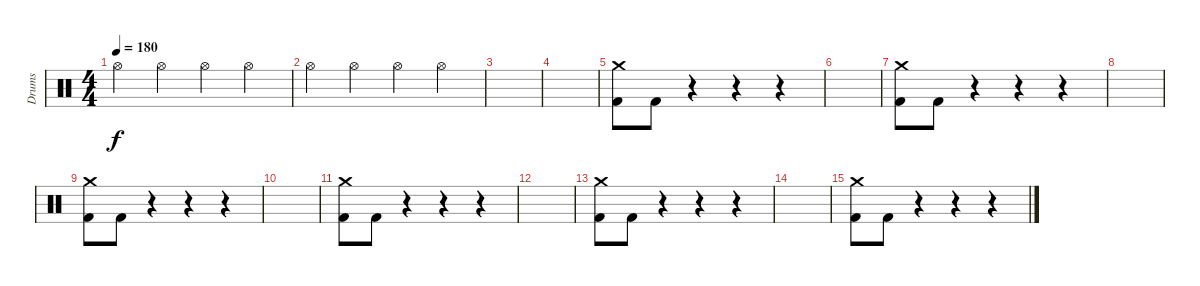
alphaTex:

\track ("Drums" "Drums") {instrument percussion}
\staff {score}
\articulation defaults
\ts (4 4)
\tempo 180
\clef neutral
\ks c "Hi-Hat (open)".4{dy f volume 8} "Hi-Hat (open)".4 "Hi-Hat (open)".4{volume 12} "Hi-Hat (open)".4
|
"Hi-Hat (open)".4{volume 14} "Hi-Hat (open)".4 "Hi-Hat (open)".4{volume 16} "Hi-Hat (open)".4 |
|
|
("Crash medium (hit)" "Kick (hit) 2").8 "Kick (hit) 2".8 r.4 r.4 r.4 |
|
("Crash medium (hit)" "Kick (hit) 2").8 "Kick (hit) 2".8 r.4 r.4 r.4 |
|
("Crash medium (hit)" "Kick (hit) 2").8 "Kick (hit) 2".8 r.4 r.4 r.4 |
|
("Crash medium (hit)" "Kick (hit) 2").8 "Kick (hit) 2".8 r.4 r.4 r.4 |
|
("Crash medium (hit)" "Kick (hit) 2").8 "Kick (hit) 2".8 r.4 r.4 r.4 |
|
("Crash medium (hit)" "Kick (hit) 2").8 "Kick (hit) 2".8 r.4 r.4 r.4
